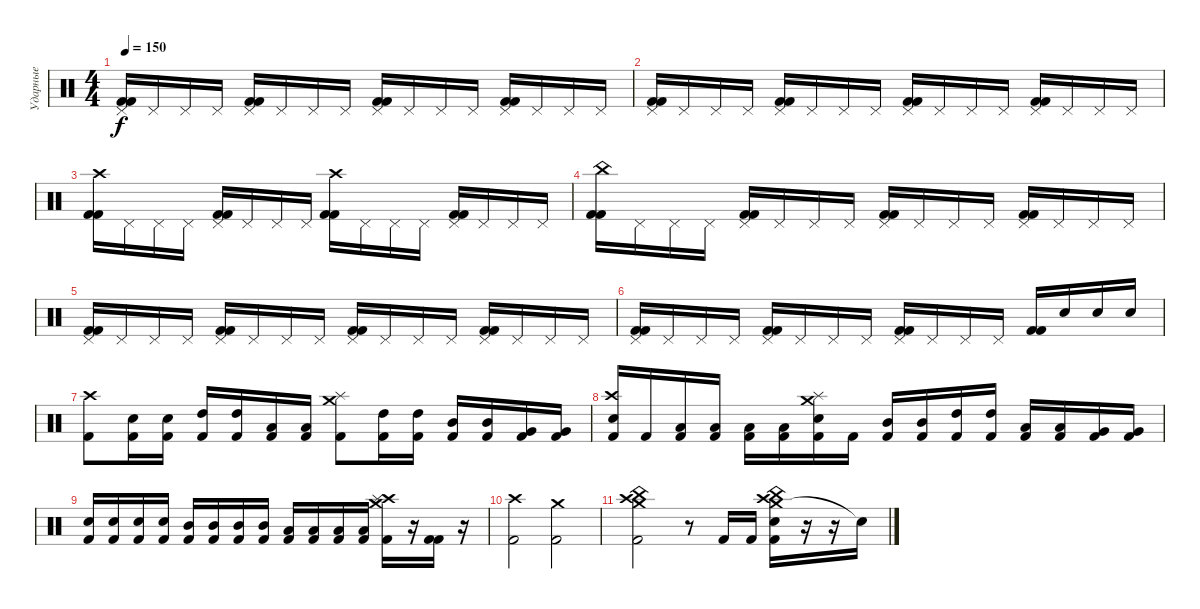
\track ("Ударные" "Ударные") {instrument percussion}
\staff {score}
\articulation defaults
\ts (4 4)
\tempo 150
\clef neutral
\ks c
("Pedal Hi-Hat (hit)" "Kick (hit) 2" "Kick (hit) 2").16{dy f} "Pedal Hi-Hat (hit)".16 "Pedal Hi-Hat (hit)".16 "Pedal Hi-Hat (hit)".16 ("Pedal Hi-Hat (hit)" "Kick (hit) 2" "Kick (hit) 2").16 "Pedal Hi-Hat (hit)".16 "Pedal Hi-Hat (hit)".16 "Pedal Hi-Hat (hit)".16 ("Pedal Hi-Hat (hit)" "Kick (hit) 2" "Kick (hit) 2").16 "Pedal Hi-Hat (hit)".16 "Pedal Hi-Hat (hit)".16 "Pedal Hi-Hat (hit)".16 ("Pedal Hi-Hat (hit)" "Kick (hit) 2" "Kick (hit) 2").16 "Pedal Hi-Hat (hit)".16 "Pedal Hi-Hat (hit)".16 "Pedal Hi-Hat (hit)".16 |
("Pedal Hi-Hat (hit)" "Kick (hit) 2" "Kick (hit) 2").16 "Pedal Hi-Hat (hit)".16 "Pedal Hi-Hat (hit)".16 "Pedal Hi-Hat (hit)".16 ("Pedal Hi-Hat (hit)" "Kick (hit) 2" "Kick (hit) 2").16 "Pedal Hi-Hat (hit)".16 "Pedal Hi-Hat (hit)".16 "Pedal Hi-Hat (hit)".16 ("Pedal Hi-Hat (hit)" "Kick (hit) 2" "Kick (hit) 2").16 "Pedal Hi-Hat (hit)".16 "Pedal Hi-Hat (hit)".16 "Pedal Hi-Hat (hit)".16 ("Pedal Hi-Hat (hit)" "Kick (hit) 2" "Kick (hit) 2").16 "Pedal Hi-Hat (hit)".16 "Pedal Hi-Hat (hit)".16 "Pedal Hi-Hat (hit)".16 |
("Crash high (hit)" "Kick (hit) 2" "Kick (hit) 2").16 "Pedal Hi-Hat (hit)".16 "Pedal Hi-Hat (hit)".16 "Pedal Hi-Hat (hit)".16 ("Pedal Hi-Hat (hit)" "Kick (hit) 2" "Kick (hit) 2").16 "Pedal Hi-Hat (hit)".16 "Pedal Hi-Hat (hit)".16 "Pedal Hi-Hat (hit)".16 ("Crash high (hit)" "Kick (hit) 2" "Kick (hit) 2").16 "Pedal Hi-Hat (hit)".16 "Pedal Hi-Hat (hit)".16 "Pedal Hi-Hat (hit)".16 ("Pedal Hi-Hat (hit)" "Kick (hit) 2" "Kick (hit) 2").16 "Pedal Hi-Hat (hit)".16 "Pedal Hi-Hat (hit)".16 "Pedal Hi-Hat (hit)".16 |
("China (hit)" "Kick (hit) 2" "Kick (hit) 2").16 "Pedal Hi-Hat (hit)".16 "Pedal Hi-Hat (hit)".16 "Pedal Hi-Hat (hit)".16 ("Pedal Hi-Hat (hit)" "Kick (hit) 2" "Kick (hit) 2").16 "Pedal Hi-Hat (hit)".16 "Pedal Hi-Hat (hit)".16 "Pedal Hi-Hat (hit)".16 ("Pedal Hi-Hat (hit)" "Kick (hit) 2" "Kick (hit) 2").16 "Pedal Hi-Hat (hit)".16 "Pedal Hi-Hat (hit)".16 "Pedal Hi-Hat (hit)".16 ("Pedal Hi-Hat (hit)" "Kick (hit) 2" "Kick (hit) 2").16 "Pedal Hi-Hat (hit)".16 "Pedal Hi-Hat (hit)".16 "Pedal Hi-Hat (hit)".16 |
("Pedal Hi-Hat (hit)" "Kick (hit) 2" "Kick (hit) 2").16 "Pedal Hi-Hat (hit)".16 "Pedal Hi-Hat (hit)".16 "Pedal Hi-Hat (hit)".16 ("Pedal Hi-Hat (hit)" "Kick (hit) 2" "Kick (hit) 2").16 "Pedal Hi-Hat (hit)".16 "Pedal Hi-Hat (hit)".16 "Pedal Hi-Hat (hit)".16 ("Pedal Hi-Hat (hit)" "Kick (hit) 2" "Kick (hit) 2").16 "Pedal Hi-Hat (hit)".16 "Pedal Hi-Hat (hit)".16 "Pedal Hi-Hat (hit)".16 ("Pedal Hi-Hat (hit)" "Kick (hit) 2" "Kick (hit) 2").16 "Pedal Hi-Hat (hit)".16 "Pedal Hi-Hat (hit)".16 "Pedal Hi-Hat (hit)".16 |
("Pedal Hi-Hat (hit)" "Kick (hit) 2" "Kick (hit) 2").16 "Pedal Hi-Hat (hit)".16 "Pedal Hi-Hat (hit)".16 "Pedal Hi-Hat (hit)".16 ("Pedal Hi-Hat (hit)" "Kick (hit) 2" "Kick (hit) 2").16 "Pedal Hi-Hat (hit)".16 "Pedal Hi-Hat (hit)".16 "Pedal Hi-Hat (hit)".16 ("Pedal Hi-Hat (hit)" "Kick (hit) 2" "Kick (hit) 2").16 "Pedal Hi-Hat (hit)".16 "Pedal Hi-Hat (hit)".16 "Pedal Hi-Hat (hit)".16 ("Kick (hit) 2" "Kick (hit) 2").16 "Electric Snare (hit)".16 "Electric Snare (hit)".16 "Electric Snare (hit)".16 |
("Crash high (hit)" "Kick (hit) 2").8 ("Electric Snare (hit)" "Kick (hit) 2").16 ("Electric Snare (hit)" "Kick (hit) 2").16 ("High Tom (hit)" "Kick (hit) 2").16 ("High Tom (hit)" "Kick (hit) 2").16 ("Low Tom (hit)" "Kick (hit) 2").16 ("Low Tom (hit)" "Kick (hit) 2").16 ("Crash medium (hit)" "Splash (hit)" "Kick (hit) 2").8 ("High Tom (hit)" "Kick (hit) 2").16 ("High Tom (hit)" "Kick (hit) 2").16 ("Mid Tom (hit)" "Kick (hit) 2").16 ("Mid Tom (hit)" "Kick (hit) 2").16 ("Very Low Tom (hit)" "Kick (hit) 2").16 ("Very Low Tom (hit)" "Kick (hit) 2").16 |
("Crash high (hit)" "Electric Snare (hit)" "Kick (hit) 2").16 "Kick (hit) 2".16 ("Low Tom (hit)" "Kick (hit) 2").16 ("Low Tom (hit)" "Kick (hit) 2").16 ("Low Tom (hit)" "Kick (hit) 2").16 ("Low Tom (hit)" "Kick (hit) 2").16 ("Crash medium (hit)" "Splash (hit)" "Electric Snare (hit)" "Kick (hit) 2").16 "Kick (hit) 2".16 ("Mid Tom (hit)" "Kick (hit) 2").16 ("Mid Tom (hit)" "Kick (hit) 2").16 ("High Tom (hit)" "Kick (hit) 2").16 ("High Tom (hit)" "Kick (hit) 2").16 ("Low Tom (hit)" "Kick (hit) 2").16 ("Low Tom (hit)" "Kick (hit) 2").16 ("Very Low Tom (hit)" "Kick (hit) 2").16 ("Very Low Tom (hit)" "Kick (hit) 2").16 |
("Electric Snare (hit)" "Kick (hit) 2").16 ("Electric Snare (hit)" "Kick (hit) 2").16 ("Electric Snare (hit)" "Kick (hit) 2").16 ("Electric Snare (hit)" "Kick (hit) 2").16 ("Mid Tom (hit)" "Kick (hit) 2").16 ("Mid Tom (hit)" "Kick (hit) 2").16 ("Mid Tom (hit)" "Kick (hit) 2").16 ("Mid Tom (hit)" "Kick (hit) 2").16 ("Low Tom (hit)" "Kick (hit) 2").16 ("Low Tom (hit)" "Kick (hit) 2").16 ("Low Tom (hit)" "Kick (hit) 2").16 ("Low Tom (hit)" "Kick (hit) 2").16 ("Crash high (hit)" "Crash medium (hit)" "Splash (hit)" "Kick (hit) 2").16 r.16 ("Kick (hit) 2" "Kick (hit) 2").16 r.16 |
("Crash high (hit)" "Kick (hit) 2").2 ("Crash medium (hit)" "Kick (hit) 2").2 |
("Crash high (hit)" "Crash medium (hit)" "China (hit)" "Kick (hit) 2").2 r.8 "Kick (hit) 2".16 "Kick (hit) 2".16 ("Crash medium (hit)" "China (hit)" "Crash high (hit)" "Electric Snare (hit)" "Kick (hit) 2").16 r.16 r.16 "Snare (hit)"{t}.16
